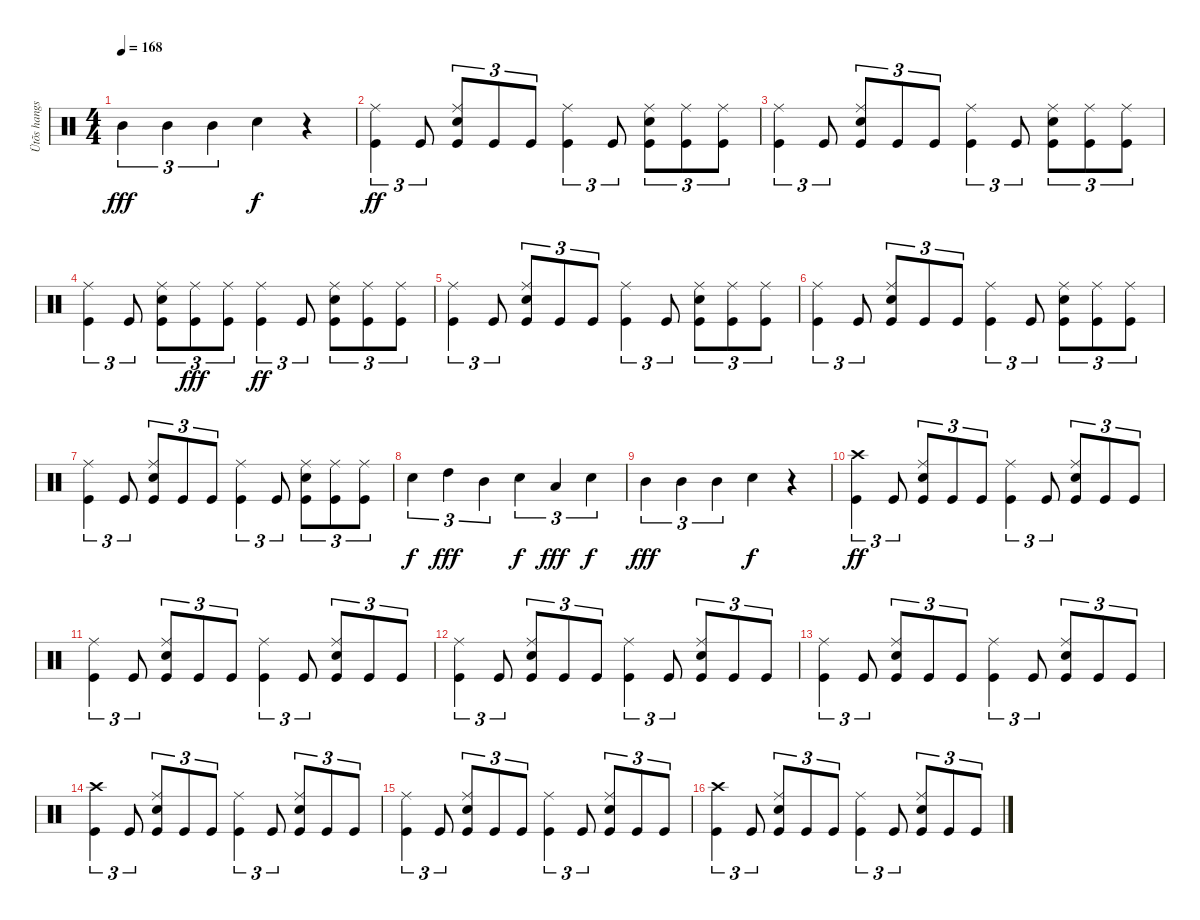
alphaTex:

\track ("Ütõs hangszer" "Ütõs hangs") {instrument percussion}
\staff {score}
\articulation defaults
\ts (4 4)
\tempo 168
\clef neutral
\ks c "Mid Tom (hit)".4{tu (3 2) dy fff} "Mid Tom (hit)".4{tu (3 2)} "Mid Tom (hit)".4{tu (3 2)} "Electric Snare (hit)".4{dy f}
r.4 |
("Ride (middle)" "Kick (hit)").4{tu (3 2) dy ff} "Kick (hit)".8{tu (3 2)} ("Ride (middle)" "Electric Snare (hit)" "Kick (hit)").8{tu (3 2)} "Kick (hit)".8{tu (3 2)} "Kick (hit)".8{tu (3 2)} ("Ride (middle)" "Kick (hit)").4{tu (3 2)} "Kick (hit)".8{tu (3 2)} ("Ride (middle)" "Electric Snare (hit)" "Kick (hit)").8{tu (3 2)} ("Ride (middle)" "Kick (hit)").8{tu (3 2)} ("Ride (middle)" "Kick (hit)").8{tu (3 2)} |
("Ride (middle)" "Kick (hit)").4{tu (3 2)} "Kick (hit)".8{tu (3 2)} ("Ride (middle)" "Electric Snare (hit)" "Kick (hit)").8{tu (3 2)} "Kick (hit)".8{tu (3 2)} "Kick (hit)".8{tu (3 2)} ("Ride (middle)" "Kick (hit)").4{tu (3 2)} "Kick (hit)".8{tu (3 2)} ("Ride (middle)" "Electric Snare (hit)" "Kick (hit)").8{tu (3 2)} ("Ride (middle)" "Kick (hit)").8{tu (3 2)} ("Ride (middle)" "Kick (hit)").8{tu (3 2)} |
("Ride (middle)" "Kick (hit)").4{tu (3 2)} "Kick (hit)".8{tu (3 2)} ("Ride (middle)" "Electric Snare (hit)" "Kick (hit)").8{tu (3 2)} ("Kick (hit)" "Ride (middle)").8{tu (3 2) dy fff} ("Kick (hit)" "Ride (middle)").8{tu (3 2)} ("Ride (middle)" "Kick (hit)").4{tu (3 2) dy ff} "Kick (hit)".8{tu (3 2)} ("Ride (middle)" "Electric Snare (hit)" "Kick (hit)").8{tu (3 2)} ("Ride (middle)" "Kick (hit)").8{tu (3 2)} ("Ride (middle)" "Kick (hit)").8{tu (3 2)} |
("Ride (middle)" "Kick (hit)").4{tu (3 2)} "Kick (hit)".8{tu (3 2)} ("Ride (middle)" "Electric Snare (hit)" "Kick (hit)").8{tu (3 2)} "Kick (hit)".8{tu (3 2)} "Kick (hit)".8{tu (3 2)} ("Ride (middle)" "Kick (hit)").4{tu (3 2)} "Kick (hit)".8{tu (3 2)} ("Ride (middle)" "Electric Snare (hit)" "Kick (hit)").8{tu (3 2)} ("Ride (middle)" "Kick (hit)").8{tu (3 2)} ("Ride (middle)" "Kick (hit)").8{tu (3 2)} |
("Ride (middle)" "Kick (hit)").4{tu (3 2)} "Kick (hit)".8{tu (3 2)} ("Ride (middle)" "Electric Snare (hit)" "Kick (hit)").8{tu (3 2)} "Kick (hit)".8{tu (3 2)} "Kick (hit)".8{tu (3 2)} ("Ride (middle)" "Kick (hit)").4{tu (3 2)} "Kick (hit)".8{tu (3 2)} ("Ride (middle)" "Electric Snare (hit)" "Kick (hit)").8{tu (3 2)} ("Ride (middle)" "Kick (hit)").8{tu (3 2)} ("Ride (middle)" "Kick (hit)").8{tu (3 2)} |
("Ride (middle)" "Kick (hit)").4{tu (3 2)} "Kick (hit)".8{tu (3 2)} ("Ride (middle)" "Electric Snare (hit)" "Kick (hit)").8{tu (3 2)} "Kick (hit)".8{tu (3 2)} "Kick (hit)".8{tu (3 2)} ("Ride (middle)" "Kick (hit)").4{tu (3 2)} "Kick (hit)".8{tu (3 2)} ("Ride (middle)" "Electric Snare (hit)" "Kick (hit)").8{tu (3 2)} ("Ride (middle)" "Kick (hit)").8{tu (3 2)} ("Ride (middle)" "Kick (hit)").8{tu (3 2)} |
"Electric Snare (hit)".4{tu (3 2) dy f} "High Tom (hit)".4{tu (3 2) dy fff} "Mid Tom (hit)".4{tu (3 2)} "Electric Snare (hit)".4{tu (3 2) dy f} "Low Tom (hit)".4{tu (3 2) dy fff} "Electric Snare (hit)".4{tu (3 2) dy f} |
"Mid Tom (hit)".4{tu (3 2) dy fff} "Mid Tom (hit)".4{tu (3 2)} "Mid Tom (hit)".4{tu (3 2)} "Electric Snare (hit)".4{dy f} r.4 |
("Crash high (hit)" "Kick (hit)").4{tu (3 2) dy ff} "Kick (hit)".8{tu (3 2)} ("Ride (middle)" "Electric Snare (hit)" "Kick (hit)").8{tu (3 2)} "Kick (hit)".8{tu (3 2)} "Kick (hit)".8{tu (3 2)} ("Ride (middle)" "Kick (hit)").4{tu (3 2)} "Kick (hit)".8{tu (3 2)} ("Ride (middle)" "Electric Snare (hit)" "Kick (hit)").8{tu (3 2)} "Kick (hit)".8{tu (3 2)} "Kick (hit)".8{tu (3 2)} |
("Ride (middle)" "Kick (hit)").4{tu (3 2)} "Kick (hit)".8{tu (3 2)} ("Ride (middle)" "Electric Snare (hit)" "Kick (hit)").8{tu (3 2)} "Kick (hit)".8{tu (3 2)} "Kick (hit)".8{tu (3 2)} ("Ride (middle)" "Kick (hit)").4{tu (3 2)} "Kick (hit)".8{tu (3 2)} ("Ride (middle)" "Electric Snare (hit)" "Kick (hit)").8{tu (3 2)} "Kick (hit)".8{tu (3 2)} "Kick (hit)".8{tu (3 2)} |
("Ride (middle)" "Kick (hit)").4{tu (3 2)} "Kick (hit)".8{tu (3 2)} ("Ride (middle)" "Electric Snare (hit)" "Kick (hit)").8{tu (3 2)} "Kick (hit)".8{tu (3 2)} "Kick (hit)".8{tu (3 2)} ("Ride (middle)" "Kick (hit)").4{tu (3 2)} "Kick (hit)".8{tu (3 2)} ("Ride (middle)" "Electric Snare (hit)" "Kick (hit)").8{tu (3 2)} "Kick (hit)".8{tu (3 2)} "Kick (hit)".8{tu (3 2)} |
("Ride (middle)" "Kick (hit)").4{tu (3 2)} "Kick (hit)".8{tu (3 2)} ("Ride (middle)" "Electric Snare (hit)" "Kick (hit)").8{tu (3 2)} "Kick (hit)".8{tu (3 2)} "Kick (hit)".8{tu (3 2)} ("Ride (middle)" "Kick (hit)").4{tu (3 2)} "Kick (hit)".8{tu (3 2)} ("Ride (middle)" "Electric Snare (hit)" "Kick (hit)").8{tu (3 2)} "Kick (hit)".8{tu (3 2)} "Kick (hit)".8{tu (3 2)} |
("Crash high (hit)" "Kick (hit)").4{tu (3 2)} "Kick (hit)".8{tu (3 2)} ("Ride (middle)" "Electric Snare (hit)" "Kick (hit)").8{tu (3 2)} "Kick (hit)".8{tu (3 2)} "Kick (hit)".8{tu (3 2)} ("Ride (middle)" "Kick (hit)").4{tu (3 2)} "Kick (hit)".8{tu (3 2)} ("Ride (middle)" "Electric Snare (hit)" "Kick (hit)").8{tu (3 2)} "Kick (hit)".8{tu (3 2)} "Kick (hit)".8{tu (3 2)} |
("Ride (middle)" "Kick (hit)").4{tu (3 2)} "Kick (hit)".8{tu (3 2)} ("Ride (middle)" "Electric Snare (hit)" "Kick (hit)").8{tu (3 2)} "Kick (hit)".8{tu (3 2)} "Kick (hit)".8{tu (3 2)} ("Ride (middle)" "Kick (hit)").4{tu (3 2)} "Kick (hit)".8{tu (3 2)} ("Ride (middle)" "Electric Snare (hit)" "Kick (hit)").8{tu (3 2)} "Kick (hit)".8{tu (3 2)} "Kick (hit)".8{tu (3 2)} |
("Crash high (hit)" "Kick (hit)").4{tu (3 2)} "Kick (hit)".8{tu (3 2)} ("Ride (middle)" "Electric Snare (hit)" "Kick (hit)").8{tu (3 2)} "Kick (hit)".8{tu (3 2)} "Kick (hit)".8{tu (3 2)} ("Ride (middle)" "Kick (hit)").4{tu (3 2)} "Kick (hit)".8{tu (3 2)} ("Ride (middle)" "Electric Snare (hit)" "Kick (hit)").8{tu (3 2)} "Kick (hit)".8{tu (3 2)} "Kick (hit)".8{tu (3 2)}
